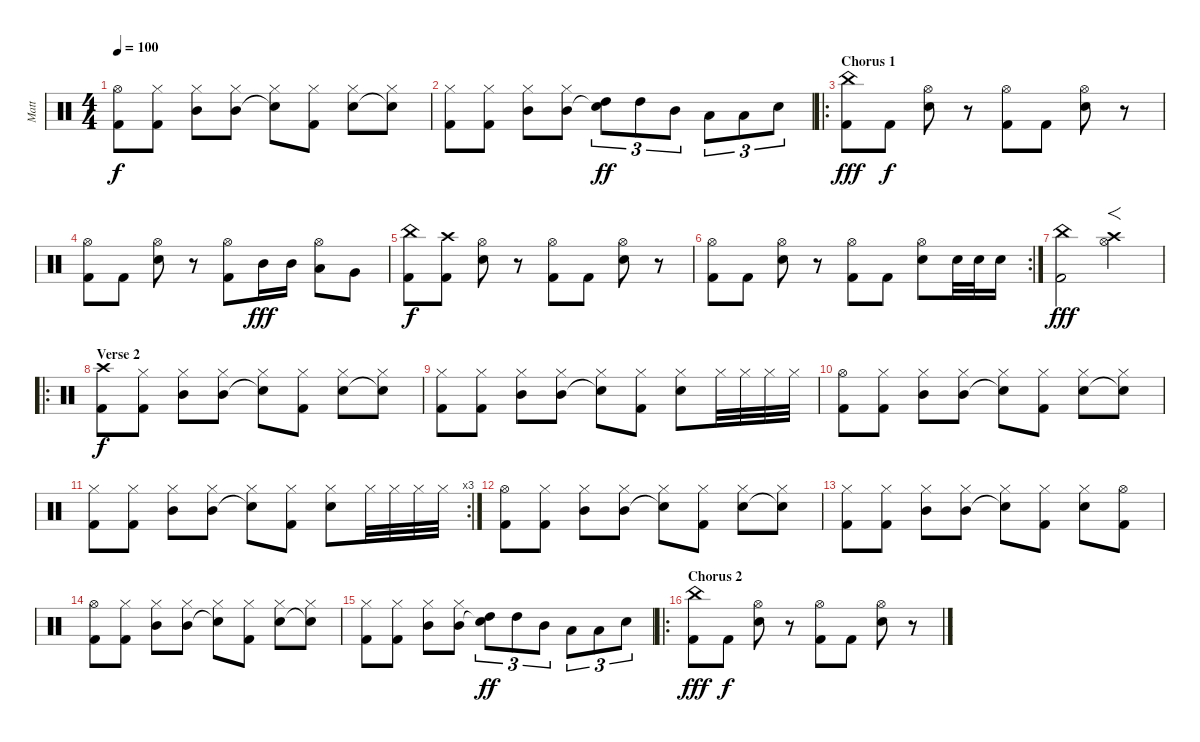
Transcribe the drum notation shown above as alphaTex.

\track ("Matt" "Matt") {instrument percussion}
\staff {score}
\articulation defaults
\ts (4 4)
\tempo 100
\clef neutral
\ks c
("Hi-Hat (open)" "Kick (hit) 2").8{dy f} ("Hi-Hat (closed)" "Kick (hit) 2").8 ("Hi-Hat (closed)" "Mid Tom (hit)").8 ("Hi-Hat (closed)" "Mid Tom (hit)").8 ("Hi-Hat (closed)" "Snare (hit)"{t}).8 ("Hi-Hat (closed)" "Kick (hit) 2").8 ("Hi-Hat (closed)" "Electric Snare (hit)").8 ("Hi-Hat (closed)" "Snare (hit)"{t}).8 |
("Hi-Hat (closed)" "Kick (hit) 2").8 ("Hi-Hat (closed)" "Kick (hit) 2").8 ("Hi-Hat (closed)" "Mid Tom (hit)").8 ("Hi-Hat (closed)" "Mid Tom (hit)").8 ("High Tom (hit)" "Snare (hit)"{t}).8{tu (3 2) dy ff} "High Tom (hit)".8{tu (3 2)} "Mid Tom (hit)".8{tu (3 2)} "Low Floor Tom (hit)".8{tu (3 2)} "Low Floor Tom (hit)".8{tu (3 2)} "Snare (hit) 2".8{tu (3 2)} |
\ro
\section ("" "Chorus 1")
("China (hit)" "Kick (hit) 2").8{dy fff} "Kick (hit) 2".8{dy f} ("Hi-Hat (open)" "Electric Snare (hit)").8 r.8 ("Hi-Hat (open)" "Kick (hit) 2").8 "Kick (hit) 2".8 ("Hi-Hat (open)" "Electric Snare (hit)").8 r.8 |
("Hi-Hat (open)" "Kick (hit) 2").8 "Kick (hit) 2".8 ("Hi-Hat (open)" "Electric Snare (hit)").8 r.8 ("Hi-Hat (open)" "Kick (hit) 2").8 "Mid Tom (hit)".16{dy fff} "Mid Tom (hit)".16 ("Hi-Hat (open)" "Low Tom (hit)").8 "Very Low Tom (hit)".8 |
("China (hit)" "Kick (hit) 2").8{dy f} ("Crash high (hit)" "Kick (hit) 2").8 ("Hi-Hat (open)" "Electric Snare (hit)").8 r.8 ("Hi-Hat (open)" "Kick (hit) 2").8 "Kick (hit) 2".8 ("Hi-Hat (open)" "Electric Snare (hit)").8 r.8 |
\rc 2
("Hi-Hat (open)" "Kick (hit) 2").8 "Kick (hit) 2".8 ("Hi-Hat (open)" "Electric Snare (hit)").8 r.8 ("Hi-Hat (open)" "Kick (hit) 2").8 "Kick (hit) 2".8 ("Hi-Hat (open)" "Electric Snare (hit)").8 "Electric Snare (hit)".32 "Electric Snare (hit)".32 "Electric Snare (hit)".16 |
("China (hit)" "Kick (hit) 2").2{dy fff} ("Hi-Hat (open)" "Crash high (hit)").2{f} |
\ro
\section ("" "Verse 2")
("Crash high (hit)" "Kick (hit) 2").8{dy f} ("Hi-Hat (closed)" "Kick (hit) 2").8 ("Hi-Hat (closed)" "Mid Tom (hit)").8 ("Hi-Hat (closed)" "Mid Tom (hit)").8 ("Hi-Hat (closed)" "Snare (hit)"{t}).8 ("Hi-Hat (closed)" "Kick (hit) 2").8 ("Hi-Hat (closed)" "Electric Snare (hit)").8 ("Hi-Hat (closed)" "Snare (hit)"{t}).8 |
("Hi-Hat (closed)" "Kick (hit) 2").8 ("Hi-Hat (closed)" "Kick (hit) 2").8 ("Hi-Hat (closed)" "Mid Tom (hit)").8 ("Hi-Hat (closed)" "Mid Tom (hit)").8 ("Hi-Hat (closed)" "Snare (hit)"{t}).8 ("Hi-Hat (closed)" "Kick (hit) 2").8 ("Hi-Hat (closed)" "Electric Snare (hit)").8 "Hi-Hat (closed)".32 "Hi-Hat (closed)".32 "Hi-Hat (closed)".32 "Hi-Hat (closed)".32 |
("Hi-Hat (open)" "Kick (hit) 2").8 ("Hi-Hat (closed)" "Kick (hit) 2").8 ("Hi-Hat (closed)" "Mid Tom (hit)").8 ("Hi-Hat (closed)" "Mid Tom (hit)").8 ("Hi-Hat (closed)" "Snare (hit)"{t}).8 ("Hi-Hat (closed)" "Kick (hit) 2").8 ("Hi-Hat (closed)" "Electric Snare (hit)").8 ("Hi-Hat (closed)" "Snare (hit)"{t}).8 |
\rc 3
("Hi-Hat (closed)" "Kick (hit) 2").8 ("Hi-Hat (closed)" "Kick (hit) 2").8 ("Hi-Hat (closed)" "Mid Tom (hit)").8 ("Hi-Hat (closed)" "Mid Tom (hit)").8 ("Hi-Hat (closed)" "Snare (hit)"{t}).8 ("Hi-Hat (closed)" "Kick (hit) 2").8 ("Hi-Hat (closed)" "Electric Snare (hit)").8 "Hi-Hat (closed)".32 "Hi-Hat (closed)".32 "Hi-Hat (closed)".32 "Hi-Hat (closed)".32 |
("Hi-Hat (open)" "Kick (hit) 2").8 ("Hi-Hat (closed)" "Kick (hit) 2").8 ("Hi-Hat (closed)" "Mid Tom (hit)").8 ("Hi-Hat (closed)" "Mid Tom (hit)").8 ("Hi-Hat (closed)" "Snare (hit)"{t}).8 ("Hi-Hat (closed)" "Kick (hit) 2").8 ("Hi-Hat (closed)" "Electric Snare (hit)").8 ("Hi-Hat (closed)" "Snare (hit)"{t}).8 |
("Hi-Hat (closed)" "Kick (hit) 2").8 ("Hi-Hat (closed)" "Kick (hit) 2").8 ("Hi-Hat (closed)" "Mid Tom (hit)").8 ("Hi-Hat (closed)" "Mid Tom (hit)").8 ("Hi-Hat (closed)" "Snare (hit)"{t}).8 ("Hi-Hat (closed)" "Kick (hit) 2").8 ("Hi-Hat (closed)" "Electric Snare (hit)").8 ("Hi-Hat (open)" "Kick (hit) 2").8 |
("Hi-Hat (open)" "Kick (hit) 2").8 ("Hi-Hat (closed)" "Kick (hit) 2").8 ("Hi-Hat (closed)" "Mid Tom (hit)").8 ("Hi-Hat (closed)" "Mid Tom (hit)").8 ("Hi-Hat (closed)" "Snare (hit)"{t}).8 ("Hi-Hat (closed)" "Kick (hit) 2").8 ("Hi-Hat (closed)" "Electric Snare (hit)").8 ("Hi-Hat (closed)" "Snare (hit)"{t}).8 |
("Hi-Hat (closed)" "Kick (hit) 2").8 ("Hi-Hat (closed)" "Kick (hit) 2").8 ("Hi-Hat (closed)" "Mid Tom (hit)").8 ("Hi-Hat (closed)" "Mid Tom (hit)").8 ("High Tom (hit)" "Snare (hit)"{t}).8{tu (3 2) dy ff} "High Tom (hit)".8{tu (3 2)} "Mid Tom (hit)".8{tu (3 2)} "Low Floor Tom (hit)".8{tu (3 2)} "Low Floor Tom (hit)".8{tu (3 2)} "Snare (hit) 2".8{tu (3 2)} |
\ro
\section ("" "Chorus 2")
("China (hit)" "Kick (hit) 2").8{dy fff} "Kick (hit) 2".8{dy f} ("Hi-Hat (open)" "Electric Snare (hit)").8 r.8 ("Hi-Hat (open)" "Kick (hit) 2").8 "Kick (hit) 2".8 ("Hi-Hat (open)" "Electric Snare (hit)").8 r.8
